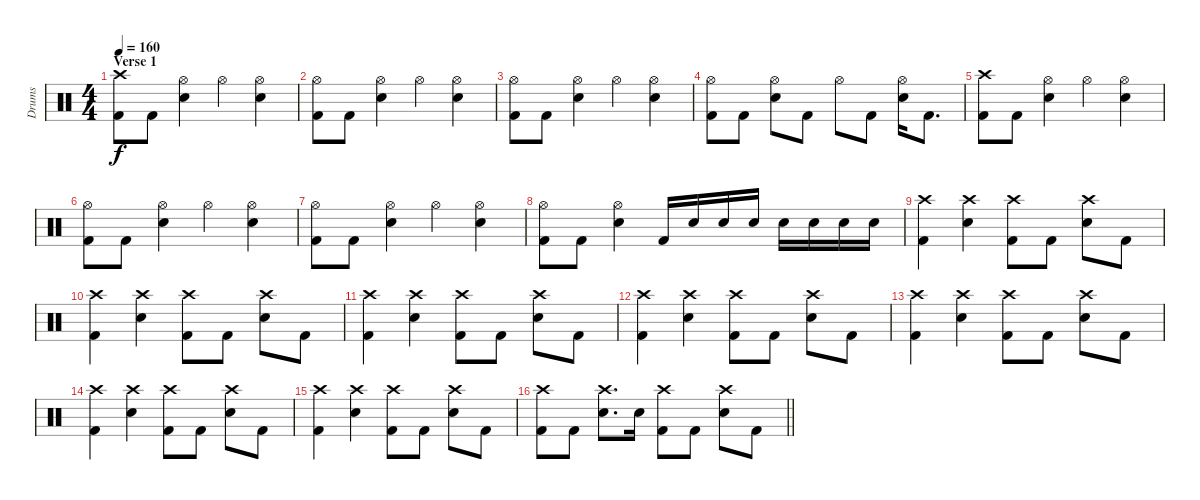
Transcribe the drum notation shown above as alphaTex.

\track ("Drums" "Drums") {instrument percussion}
\staff {score}
\articulation defaults
\ts (4 4)
\section ("" "Verse 1")
\tempo 160
\clef neutral
\ks c
("Crash high (hit)" "Kick (hit) 2").8{dy f} "Kick (hit) 2".8 ("Hi-Hat (open)" "Electric Snare (hit)").4 "Hi-Hat (open)".4 ("Hi-Hat (open)" "Electric Snare (hit)").4 |
("Hi-Hat (open)" "Kick (hit) 2").8 "Kick (hit) 2".8 ("Hi-Hat (open)" "Electric Snare (hit)").4 "Hi-Hat (open)".4 ("Hi-Hat (open)" "Electric Snare (hit)").4 |
("Hi-Hat (open)" "Kick (hit) 2").8 "Kick (hit) 2".8 ("Hi-Hat (open)" "Electric Snare (hit)").4 "Hi-Hat (open)".4 ("Hi-Hat (open)" "Electric Snare (hit)").4 |
("Hi-Hat (open)" "Kick (hit) 2").8 "Kick (hit) 2".8 ("Hi-Hat (open)" "Electric Snare (hit)").8 "Kick (hit) 2".8 "Hi-Hat (open)".8 "Kick (hit) 2".8 ("Hi-Hat (open)" "Electric Snare (hit)").16 "Kick (hit) 2".8{d} |
("Crash high (hit)" "Kick (hit) 2").8 "Kick (hit) 2".8 ("Hi-Hat (open)" "Electric Snare (hit)").4 "Hi-Hat (open)".4 ("Hi-Hat (open)" "Electric Snare (hit)").4 |
("Hi-Hat (open)" "Kick (hit) 2").8 "Kick (hit) 2".8 ("Hi-Hat (open)" "Electric Snare (hit)").4 "Hi-Hat (open)".4 ("Hi-Hat (open)" "Electric Snare (hit)").4 |
("Hi-Hat (open)" "Kick (hit) 2").8 "Kick (hit) 2".8 ("Hi-Hat (open)" "Electric Snare (hit)").4 "Hi-Hat (open)".4 ("Hi-Hat (open)" "Electric Snare (hit)").4 |
("Hi-Hat (open)" "Kick (hit) 2").8 "Kick (hit) 2".8 ("Hi-Hat (open)" "Electric Snare (hit)").4 "Kick (hit) 2".16 "Electric Snare (hit)".16 "Electric Snare (hit)".16 "Electric Snare (hit)".16 "Electric Snare (hit)".16 "Electric Snare (hit)".16 "Electric Snare (hit)".16 "Electric Snare (hit)".16 |
("Crash high (hit)" "Kick (hit) 2").4 ("Crash high (hit)" "Electric Snare (hit)").4 ("Crash high (hit)" "Kick (hit) 2").8 "Kick (hit) 2".8 ("Crash high (hit)" "Electric Snare (hit)").8 "Kick (hit) 2".8 |
("Crash high (hit)" "Kick (hit) 2").4 ("Crash high (hit)" "Electric Snare (hit)").4 ("Crash high (hit)" "Kick (hit) 2").8 "Kick (hit) 2".8 ("Crash high (hit)" "Electric Snare (hit)").8 "Kick (hit) 2".8 |
("Crash high (hit)" "Kick (hit) 2").4 ("Crash high (hit)" "Electric Snare (hit)").4 ("Crash high (hit)" "Kick (hit) 2").8 "Kick (hit) 2".8 ("Crash high (hit)" "Electric Snare (hit)").8 "Kick (hit) 2".8 |
("Crash high (hit)" "Kick (hit) 2").4 ("Crash high (hit)" "Electric Snare (hit)").4 ("Crash high (hit)" "Kick (hit) 2").8 "Kick (hit) 2".8 ("Crash high (hit)" "Electric Snare (hit)").8 "Kick (hit) 2".8 |
("Crash high (hit)" "Kick (hit) 2").4 ("Crash high (hit)" "Electric Snare (hit)").4 ("Crash high (hit)" "Kick (hit) 2").8 "Kick (hit) 2".8 ("Crash high (hit)" "Electric Snare (hit)").8 "Kick (hit) 2".8 |
("Crash high (hit)" "Kick (hit) 2").4 ("Crash high (hit)" "Electric Snare (hit)").4 ("Crash high (hit)" "Kick (hit) 2").8 "Kick (hit) 2".8 ("Crash high (hit)" "Electric Snare (hit)").8 "Kick (hit) 2".8 |
("Crash high (hit)" "Kick (hit) 2").4 ("Crash high (hit)" "Electric Snare (hit)").4 ("Crash high (hit)" "Kick (hit) 2").8 "Kick (hit) 2".8 ("Crash high (hit)" "Electric Snare (hit)").8 "Kick (hit) 2".8 |
\barLineRight lightlight
("Crash high (hit)" "Kick (hit) 2").8 "Kick (hit) 2".8 ("Crash high (hit)" "Electric Snare (hit)").8{d} "Electric Snare (hit)".16 ("Crash high (hit)" "Kick (hit) 2").8 "Kick (hit) 2".8 ("Crash high (hit)" "Electric Snare (hit)").8 "Kick (hit) 2".8
